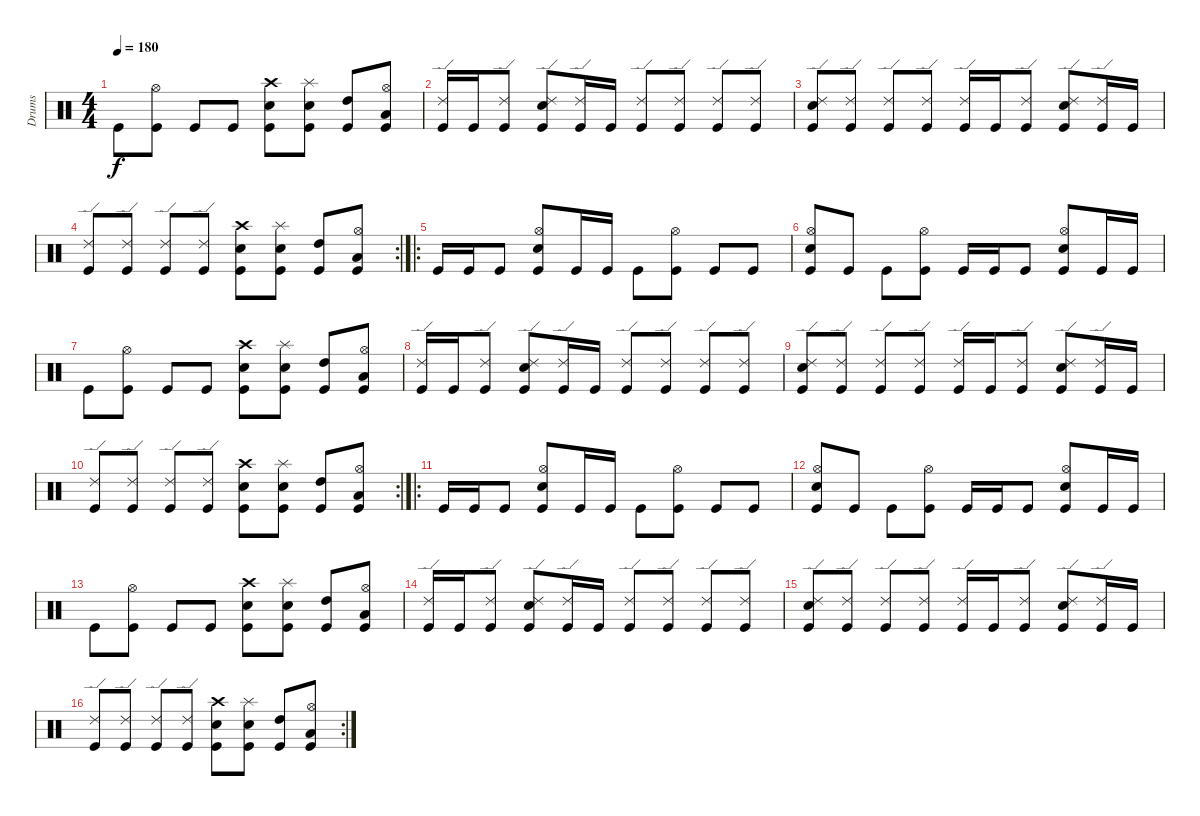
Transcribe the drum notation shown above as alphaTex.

\track ("Drums" "Drums") {instrument percussion}
\staff {score}
\articulation defaults
\ts (4 4)
\tempo 180
\clef neutral
\ks c "Kick (hit)".8{dy f}
("Hi-Hat (open)" "Kick (hit)").8 "Kick (hit)".8 "Kick (hit)".8 ("Crash high (hit)" "Snare (hit) 2" "Kick (hit)").8 ("Splash (hit)" "Snare (hit) 2" "Kick (hit)").8 ("High Tom (hit)" "Kick (hit)").8 ("Hi-Hat (open)" "Low Tom (hit)" "Kick (hit)").8 |
("Ride (edge) 2" "Kick (hit)").16 "Kick (hit)".16 ("Ride (edge) 2" "Kick (hit)").8 ("Ride (edge) 2" "Snare (hit) 2" "Kick (hit)").8 ("Ride (edge) 2" "Kick (hit)").16 "Kick (hit)".16 ("Ride (edge) 2" "Kick (hit)").8 ("Ride (edge) 2" "Kick (hit)").8 ("Ride (edge) 2" "Kick (hit)").8 ("Ride (edge) 2" "Kick (hit)").8 |
("Ride (edge) 2" "Snare (hit) 2" "Kick (hit)").8 ("Ride (edge) 2" "Kick (hit)").8 ("Ride (edge) 2" "Kick (hit)").8 ("Ride (edge) 2" "Kick (hit)").8 ("Ride (edge) 2" "Kick (hit)").16 "Kick (hit)".16 ("Ride (edge) 2" "Kick (hit)").8 ("Ride (edge) 2" "Snare (hit) 2" "Kick (hit)").8 ("Ride (edge) 2" "Kick (hit)").16 "Kick (hit)".16 |
\rc 2
("Ride (edge) 2" "Kick (hit)").8 ("Ride (edge) 2" "Kick (hit)").8 ("Ride (edge) 2" "Kick (hit)").8 ("Ride (edge) 2" "Kick (hit)").8 ("Crash high (hit)" "Snare (hit) 2" "Kick (hit)").8 ("Splash (hit)" "Snare (hit) 2" "Kick (hit)").8 ("High Tom (hit)" "Kick (hit)").8 ("Hi-Hat (open)" "Low Tom (hit)" "Kick (hit)").8 |
\ro "Kick (hit)".16 "Kick (hit)".16 "Kick (hit)".8
("Hi-Hat (open)" "Snare (hit) 2" "Kick (hit)").8 "Kick (hit)".16 "Kick (hit)".16 "Kick (hit)".8 ("Hi-Hat (open)" "Kick (hit)").8 "Kick (hit)".8 "Kick (hit)".8 |
("Hi-Hat (open)" "Snare (hit) 2" "Kick (hit)").8 "Kick (hit)".8 "Kick (hit)".8 ("Hi-Hat (open)" "Kick (hit)").8 "Kick (hit)".16 "Kick (hit)".16 "Kick (hit)".8 ("Hi-Hat (open)" "Snare (hit) 2" "Kick (hit)").8 "Kick (hit)".16 "Kick (hit)".16 |
"Kick (hit)".8 ("Hi-Hat (open)" "Kick (hit)").8 "Kick (hit)".8 "Kick (hit)".8 ("Crash high (hit)" "Snare (hit) 2" "Kick (hit)").8 ("Splash (hit)" "Snare (hit) 2" "Kick (hit)").8 ("High Tom (hit)" "Kick (hit)").8 ("Hi-Hat (open)" "Low Tom (hit)" "Kick (hit)").8 |
("Ride (edge) 2" "Kick (hit)").16 "Kick (hit)".16 ("Ride (edge) 2" "Kick (hit)").8 ("Ride (edge) 2" "Snare (hit) 2" "Kick (hit)").8 ("Ride (edge) 2" "Kick (hit)").16 "Kick (hit)".16 ("Ride (edge) 2" "Kick (hit)").8 ("Ride (edge) 2" "Kick (hit)").8 ("Ride (edge) 2" "Kick (hit)").8 ("Ride (edge) 2" "Kick (hit)").8 |
("Ride (edge) 2" "Snare (hit) 2" "Kick (hit)").8 ("Ride (edge) 2" "Kick (hit)").8 ("Ride (edge) 2" "Kick (hit)").8 ("Ride (edge) 2" "Kick (hit)").8 ("Ride (edge) 2" "Kick (hit)").16 "Kick (hit)".16 ("Ride (edge) 2" "Kick (hit)").8 ("Ride (edge) 2" "Snare (hit) 2" "Kick (hit)").8 ("Ride (edge) 2" "Kick (hit)").16 "Kick (hit)".16 |
\rc 2
("Ride (edge) 2" "Kick (hit)").8 ("Ride (edge) 2" "Kick (hit)").8 ("Ride (edge) 2" "Kick (hit)").8 ("Ride (edge) 2" "Kick (hit)").8 ("Crash high (hit)" "Snare (hit) 2" "Kick (hit)").8 ("Splash (hit)" "Snare (hit) 2" "Kick (hit)").8 ("High Tom (hit)" "Kick (hit)").8 ("Hi-Hat (open)" "Low Tom (hit)" "Kick (hit)").8 |
\ro "Kick (hit)".16 "Kick (hit)".16 "Kick (hit)".8
("Hi-Hat (open)" "Snare (hit) 2" "Kick (hit)").8 "Kick (hit)".16 "Kick (hit)".16 "Kick (hit)".8 ("Hi-Hat (open)" "Kick (hit)").8 "Kick (hit)".8 "Kick (hit)".8 |
("Hi-Hat (open)" "Snare (hit) 2" "Kick (hit)").8 "Kick (hit)".8 "Kick (hit)".8 ("Hi-Hat (open)" "Kick (hit)").8 "Kick (hit)".16 "Kick (hit)".16 "Kick (hit)".8 ("Hi-Hat (open)" "Snare (hit) 2" "Kick (hit)").8 "Kick (hit)".16 "Kick (hit)".16 |
"Kick (hit)".8 ("Hi-Hat (open)" "Kick (hit)").8 "Kick (hit)".8 "Kick (hit)".8 ("Crash high (hit)" "Snare (hit) 2" "Kick (hit)").8 ("Splash (hit)" "Snare (hit) 2" "Kick (hit)").8 ("High Tom (hit)" "Kick (hit)").8 ("Hi-Hat (open)" "Low Tom (hit)" "Kick (hit)").8 |
("Ride (edge) 2" "Kick (hit)").16 "Kick (hit)".16 ("Ride (edge) 2" "Kick (hit)").8 ("Ride (edge) 2" "Snare (hit) 2" "Kick (hit)").8 ("Ride (edge) 2" "Kick (hit)").16 "Kick (hit)".16 ("Ride (edge) 2" "Kick (hit)").8 ("Ride (edge) 2" "Kick (hit)").8 ("Ride (edge) 2" "Kick (hit)").8 ("Ride (edge) 2" "Kick (hit)").8 |
("Ride (edge) 2" "Snare (hit) 2" "Kick (hit)").8 ("Ride (edge) 2" "Kick (hit)").8 ("Ride (edge) 2" "Kick (hit)").8 ("Ride (edge) 2" "Kick (hit)").8 ("Ride (edge) 2" "Kick (hit)").16 "Kick (hit)".16 ("Ride (edge) 2" "Kick (hit)").8 ("Ride (edge) 2" "Snare (hit) 2" "Kick (hit)").8 ("Ride (edge) 2" "Kick (hit)").16 "Kick (hit)".16 |
\rc 2
("Ride (edge) 2" "Kick (hit)").8 ("Ride (edge) 2" "Kick (hit)").8 ("Ride (edge) 2" "Kick (hit)").8 ("Ride (edge) 2" "Kick (hit)").8 ("Crash high (hit)" "Snare (hit) 2" "Kick (hit)").8 ("Splash (hit)" "Snare (hit) 2" "Kick (hit)").8 ("High Tom (hit)" "Kick (hit)").8 ("Hi-Hat (open)" "Low Tom (hit)" "Kick (hit)").8
